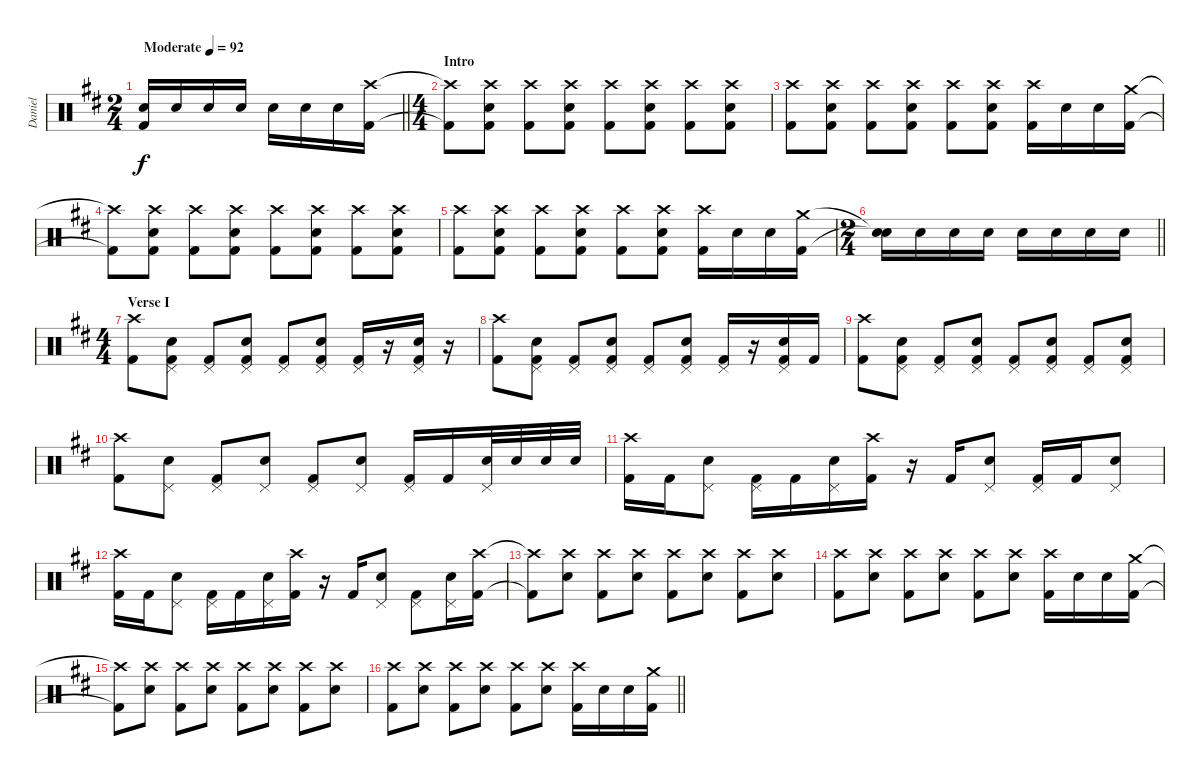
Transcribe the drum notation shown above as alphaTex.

\track ("Daniel" "Daniel") {instrument percussion}
\staff {score}
\articulation defaults
\ts (2 4)
\tempo (92 "Moderate")
\clef neutral
\barLineRight lightlight
\ks bminor
("Electric Snare (hit)" "Kick (hit) 2").16{dy f} "Electric Snare (hit)".16 "Electric Snare (hit)".16 "Electric Snare (hit)".16 "Electric Snare (hit)".16 "Electric Snare (hit)".16 "Electric Snare (hit)".16 ("Crash high (hit)" "Kick (hit) 2").16 |
\ts (4 4)
\section ("" "Intro")
("Crash high (hit)"{t} "Kick (hit) 2"{t}).8 ("Crash high (hit)" "Electric Snare (hit)" "Kick (hit) 2").8 ("Crash high (hit)" "Kick (hit) 2").8 ("Crash high (hit)" "Electric Snare (hit)" "Kick (hit) 2").8 ("Crash high (hit)" "Kick (hit) 2").8 ("Crash high (hit)" "Electric Snare (hit)" "Kick (hit) 2").8 ("Crash high (hit)" "Kick (hit) 2").8 ("Crash high (hit)" "Electric Snare (hit)" "Kick (hit) 2").8 |
("Crash high (hit)" "Kick (hit) 2").8 ("Crash high (hit)" "Electric Snare (hit)" "Kick (hit) 2").8 ("Crash high (hit)" "Kick (hit) 2").8 ("Crash high (hit)" "Electric Snare (hit)" "Kick (hit) 2").8 ("Crash high (hit)" "Kick (hit) 2").8 ("Crash high (hit)" "Electric Snare (hit)" "Kick (hit) 2").8 ("Crash high (hit)" "Kick (hit) 2").16 "Electric Snare (hit)".16 "Electric Snare (hit)".16 ("Crash medium (hit)" "Kick (hit) 2").16 |
("Crash high (hit)"{t} "Kick (hit) 2"{t}).8 ("Crash high (hit)" "Electric Snare (hit)" "Kick (hit) 2").8 ("Crash high (hit)" "Kick (hit) 2").8 ("Crash high (hit)" "Electric Snare (hit)" "Kick (hit) 2").8 ("Crash high (hit)" "Kick (hit) 2").8 ("Crash high (hit)" "Electric Snare (hit)" "Kick (hit) 2").8 ("Crash high (hit)" "Kick (hit) 2").8 ("Crash high (hit)" "Electric Snare (hit)" "Kick (hit) 2").8 |
("Crash high (hit)" "Kick (hit) 2").8 ("Crash high (hit)" "Electric Snare (hit)" "Kick (hit) 2").8 ("Crash high (hit)" "Kick (hit) 2").8 ("Crash high (hit)" "Electric Snare (hit)" "Kick (hit) 2").8 ("Crash high (hit)" "Kick (hit) 2").8 ("Crash high (hit)" "Electric Snare (hit)" "Kick (hit) 2").8 ("Crash high (hit)" "Kick (hit) 2").16 "Electric Snare (hit)".16 "Electric Snare (hit)".16 ("Crash medium (hit)" "Kick (hit) 2").16 |
\ts (2 4)
\barLineRight lightlight
("Snare (hit)"{t} "Snare (hit)"{t}).16 "Electric Snare (hit)".16 "Electric Snare (hit)".16 "Electric Snare (hit)".16 "Electric Snare (hit)".16 "Electric Snare (hit)".16 "Electric Snare (hit)".16 "Electric Snare (hit)".16 |
\ts (4 4)
\section ("" "Verse I")
("Crash high (hit)" "Kick (hit) 2").8 ("Pedal Hi-Hat (hit)" "Electric Snare (hit)" "Kick (hit) 2").8 ("Pedal Hi-Hat (hit)" "Kick (hit) 2").8 ("Pedal Hi-Hat (hit)" "Electric Snare (hit)" "Kick (hit) 2").8 ("Pedal Hi-Hat (hit)" "Kick (hit) 2").8 ("Pedal Hi-Hat (hit)" "Electric Snare (hit)" "Kick (hit) 2").8 ("Pedal Hi-Hat (hit)" "Kick (hit) 2").16 r.16 ("Pedal Hi-Hat (hit)" "Electric Snare (hit)" "Kick (hit) 2").16 r.16 |
("Crash high (hit)" "Kick (hit) 2").8 ("Pedal Hi-Hat (hit)" "Electric Snare (hit)" "Kick (hit) 2").8 ("Pedal Hi-Hat (hit)" "Kick (hit) 2").8 ("Pedal Hi-Hat (hit)" "Electric Snare (hit)" "Kick (hit) 2").8 ("Pedal Hi-Hat (hit)" "Kick (hit) 2").8 ("Pedal Hi-Hat (hit)" "Electric Snare (hit)" "Kick (hit) 2").8 ("Pedal Hi-Hat (hit)" "Kick (hit) 2").16 r.16 ("Pedal Hi-Hat (hit)" "Electric Snare (hit)" "Kick (hit) 2").16 "Kick (hit) 2".16 |
("Crash high (hit)" "Kick (hit) 2").8 ("Pedal Hi-Hat (hit)" "Electric Snare (hit)" "Kick (hit) 2").8 ("Pedal Hi-Hat (hit)" "Kick (hit) 2").8 ("Pedal Hi-Hat (hit)" "Electric Snare (hit)" "Kick (hit) 2").8 ("Pedal Hi-Hat (hit)" "Kick (hit) 2").8 ("Pedal Hi-Hat (hit)" "Electric Snare (hit)" "Kick (hit) 2").8 ("Pedal Hi-Hat (hit)" "Kick (hit) 2").8 ("Pedal Hi-Hat (hit)" "Electric Snare (hit)" "Kick (hit) 2").8 |
("Crash high (hit)" "Kick (hit) 2").8 ("Pedal Hi-Hat (hit)" "Electric Snare (hit)").8 ("Pedal Hi-Hat (hit)" "Kick (hit) 2").8 ("Pedal Hi-Hat (hit)" "Electric Snare (hit)").8 ("Pedal Hi-Hat (hit)" "Kick (hit) 2").8 ("Pedal Hi-Hat (hit)" "Electric Snare (hit)").8 ("Pedal Hi-Hat (hit)" "Kick (hit) 2").16 "Kick (hit) 2".16 ("Pedal Hi-Hat (hit)" "Electric Snare (hit)").32 "Electric Snare (hit)".32 "Electric Snare (hit)".32 "Electric Snare (hit)".32 |
("Crash high (hit)" "Kick (hit) 2").16 "Kick (hit) 2".16 ("Pedal Hi-Hat (hit)" "Electric Snare (hit)").8 ("Pedal Hi-Hat (hit)" "Kick (hit) 2").16 "Kick (hit) 2".16 ("Pedal Hi-Hat (hit)" "Electric Snare (hit)").16 ("Crash high (hit)" "Kick (hit) 2").16 r.16 "Kick (hit) 2".16 ("Pedal Hi-Hat (hit)" "Electric Snare (hit)").8 ("Pedal Hi-Hat (hit)" "Kick (hit) 2").16 "Kick (hit) 2".16 ("Pedal Hi-Hat (hit)" "Electric Snare (hit)").8 |
("Crash high (hit)" "Kick (hit) 2").16 "Kick (hit) 2".16 ("Pedal Hi-Hat (hit)" "Electric Snare (hit)").8 ("Pedal Hi-Hat (hit)" "Kick (hit) 2").16 "Kick (hit) 2".16 ("Pedal Hi-Hat (hit)" "Electric Snare (hit)").16 ("Crash high (hit)" "Kick (hit) 2").16 r.16 "Kick (hit) 2".16 ("Pedal Hi-Hat (hit)" "Electric Snare (hit)").8 ("Pedal Hi-Hat (hit)" "Kick (hit) 2").8 ("Pedal Hi-Hat (hit)" "Electric Snare (hit)").16 ("Crash high (hit)" "Kick (hit) 2").16 |
("Crash high (hit)"{t} "Kick (hit) 2"{t}).8 ("Crash high (hit)" "Electric Snare (hit)").8 ("Crash high (hit)" "Kick (hit) 2").8 ("Crash high (hit)" "Electric Snare (hit)").8 ("Crash high (hit)" "Kick (hit) 2").8 ("Crash high (hit)" "Electric Snare (hit)").8 ("Crash high (hit)" "Kick (hit) 2").8 ("Crash high (hit)" "Electric Snare (hit)").8 |
("Crash high (hit)" "Kick (hit) 2").8 ("Crash high (hit)" "Electric Snare (hit)").8 ("Crash high (hit)" "Kick (hit) 2").8 ("Crash high (hit)" "Electric Snare (hit)").8 ("Crash high (hit)" "Kick (hit) 2").8 ("Crash high (hit)" "Electric Snare (hit)").8 ("Crash high (hit)" "Kick (hit) 2").16 "Electric Snare (hit)".16 "Electric Snare (hit)".16 ("Crash medium (hit)" "Kick (hit) 2").16 |
("Crash high (hit)"{t} "Kick (hit) 2"{t}).8 ("Crash high (hit)" "Electric Snare (hit)").8 ("Crash high (hit)" "Kick (hit) 2").8 ("Crash high (hit)" "Electric Snare (hit)").8 ("Crash high (hit)" "Kick (hit) 2").8 ("Crash high (hit)" "Electric Snare (hit)").8 ("Crash high (hit)" "Kick (hit) 2").8 ("Crash high (hit)" "Electric Snare (hit)").8 |
\barLineRight lightlight
("Crash high (hit)" "Kick (hit) 2").8 ("Crash high (hit)" "Electric Snare (hit)").8 ("Crash high (hit)" "Kick (hit) 2").8 ("Crash high (hit)" "Electric Snare (hit)").8 ("Crash high (hit)" "Kick (hit) 2").8 ("Crash high (hit)" "Electric Snare (hit)").8 ("Crash high (hit)" "Kick (hit) 2").16 "Electric Snare (hit)".16 "Electric Snare (hit)".16 ("Crash medium (hit)" "Kick (hit) 2").16
